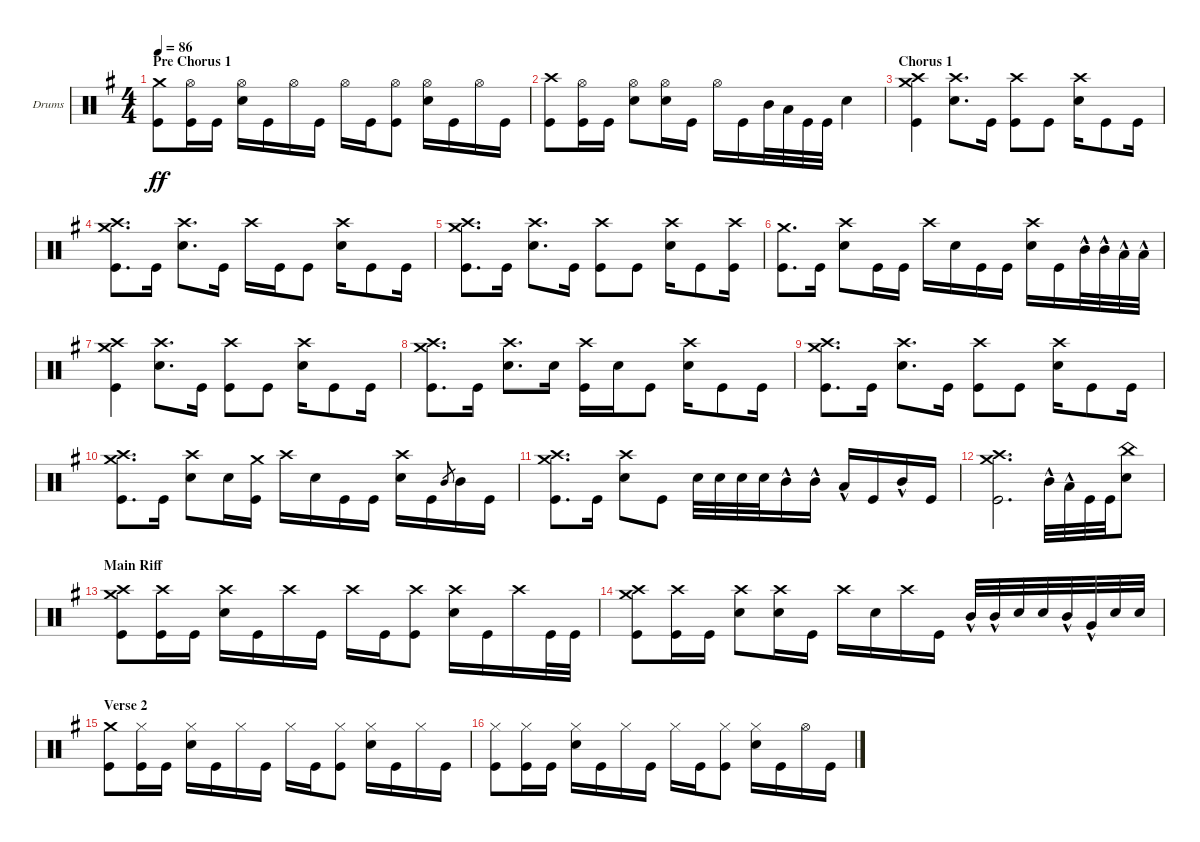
\defaultSystemsLayout 4
\bracketExtendMode groupsimilarinstruments
\firstSystemTrackNameOrientation horizontal
\otherSystemsTrackNameOrientation horizontal
\track ("Drumkit" "Drums") {instrument percussion}
\staff {score}
\articulation defaults
\ts (4 4)
\section ("" "Pre Chorus 1")
\tempo 86
\clef neutral
\ks eminor
("Kick (hit)" "Crash medium (hit)").8{dy ff} ("Kick (hit)" "Hi-Hat (open)").16 "Kick (hit)".16 ("Snare (hit) 2" "Hi-Hat (open)").16 "Kick (hit)".16 "Hi-Hat (open)".16 "Kick (hit)".16 "Hi-Hat (open)".16 "Kick (hit)".16 ("Kick (hit)" "Hi-Hat (open)").8 ("Snare (hit) 2" "Hi-Hat (open)").16 "Kick (hit)".16 "Hi-Hat (open)".16 "Kick (hit)".16 |
("Kick (hit)" "Crash high (hit)").8 ("Kick (hit)" "Hi-Hat (open)").16 "Kick (hit)".16 ("Snare (hit) 2" "Hi-Hat (open)").8 ("Hi-Hat (open)" "Snare (hit) 2").16 "Kick (hit)".16 "Hi-Hat (open)".16 "Kick (hit)".16 "Mid Tom (hit)".32 "Low Tom (hit)".32 "Kick (hit)".32 "Kick (hit)".32 "Snare (hit) 2".4 |
\section ("" "Chorus 1")
("Crash high (hit)" "Crash medium (hit)" "Kick (hit)").4 ("Crash high (hit)" "Snare (hit) 2").8{d} "Kick (hit)".16 ("Kick (hit)" "Crash high (hit)").8 "Kick (hit)".8 ("Snare (hit) 2" "Crash high (hit)").16 "Kick (hit)".8 "Kick (hit)".16 |
("Crash high (hit)" "Crash medium (hit)" "Kick (hit)").8{d} "Kick (hit)".16 ("Crash high (hit)" "Snare (hit) 2").8{d} "Kick (hit)".16 "Crash high (hit)".16 "Kick (hit)".16 "Kick (hit)".8 ("Snare (hit) 2" "Crash high (hit)").16 "Kick (hit)".8 "Kick (hit)".16 |
("Crash high (hit)" "Crash medium (hit)" "Kick (hit)").8{d} "Kick (hit)".16 ("Crash high (hit)" "Snare (hit) 2").8{d} "Kick (hit)".16 ("Kick (hit)" "Crash high (hit)").8 "Kick (hit)".8 ("Snare (hit) 2" "Crash high (hit)").16 "Kick (hit)".8 ("Kick (hit)" "Crash high (hit)").16 |
("Crash medium (hit)" "Kick (hit)").8{d} "Kick (hit)".16 ("Crash high (hit)" "Snare (hit) 2").8 "Kick (hit)".16 "Kick (hit)".16 "Crash high (hit)".16 "Snare (hit) 2".16 "Kick (hit)".16 "Kick (hit)".16 ("Snare (hit) 2" "Crash high (hit)").16 "Kick (hit)".16 "Mid Tom (hit)"{hac}.32 "Mid Tom (hit)"{hac}.32 "Low Tom (hit)"{hac}.32 "Low Tom (hit)"{hac}.32 |
("Crash high (hit)" "Crash medium (hit)" "Kick (hit)").4 ("Crash high (hit)" "Snare (hit) 2").8{d} "Kick (hit)".16 ("Kick (hit)" "Crash high (hit)").8 "Kick (hit)".8 ("Snare (hit) 2" "Crash high (hit)").16 "Kick (hit)".8 "Kick (hit)".16 |
("Crash high (hit)" "Crash medium (hit)" "Kick (hit)").8{d} "Kick (hit)".16 ("Crash high (hit)" "Snare (hit) 2").8{d} "Snare (hit) 2".16 ("Crash high (hit)" "Kick (hit)").16 "Snare (hit) 2".16 "Kick (hit)".8 ("Snare (hit) 2" "Crash high (hit)").16 "Kick (hit)".8 "Kick (hit)".16 |
("Crash high (hit)" "Crash medium (hit)" "Kick (hit)").8{d} "Kick (hit)".16 ("Crash high (hit)" "Snare (hit) 2").8{d} "Kick (hit)".16 ("Kick (hit)" "Crash high (hit)").8 "Kick (hit)".8 ("Snare (hit) 2" "Crash high (hit)").16 "Kick (hit)".8 "Kick (hit)".16 |
("Crash high (hit)" "Crash medium (hit)" "Kick (hit)").8{d} "Kick (hit)".16 ("Crash high (hit)" "Snare (hit) 2").8 "Snare (hit) 2".16 ("Kick (hit)" "Crash medium (hit)").16 "Crash high (hit)".16 "Snare (hit) 2".16 "Kick (hit)".16 "Kick (hit)".16 ("Snare (hit) 2" "Crash high (hit)").16 "Kick (hit)".16 "Mid Tom (hit)".8{gr} "Mid Tom (hit)".16 "Kick (hit)".16 |
("Crash high (hit)" "Crash medium (hit)" "Kick (hit)").8{d} "Kick (hit)".16 ("Crash high (hit)" "Snare (hit) 2").8 "Kick (hit)".8 "Snare (hit) 2".32 "Snare (hit) 2".32 "Snare (hit) 2".32 "Snare (hit) 2".32 "Mid Tom (hit)"{hac}.16 "Mid Tom (hit)"{hac}.16 "Low Tom (hit)"{hac}.16 "Kick (hit)".16 "Mid Tom (hit)"{hac}.16 "Kick (hit)".16 |
("Kick (hit)" "Crash high (hit)" "Crash medium (hit)").2{d} "Mid Tom (hit)"{hac}.32 "Low Tom (hit)"{hac}.32 "Kick (hit)".32 "Kick (hit)".32 ("Snare (hit) 2" "China (hit)").8 |
\section ("" "Main Riff")
("Crash high (hit)" "Kick (hit)" "Crash medium (hit)").8 ("Kick (hit)" "Crash high (hit)").16 "Kick (hit)".16 ("Snare (hit) 2" "Crash high (hit)").16 "Kick (hit)".16 "Crash high (hit)".16 "Kick (hit)".16 "Crash high (hit)".16 "Kick (hit)".16 ("Kick (hit)" "Crash high (hit)").8 ("Snare (hit) 2" "Crash high (hit)").16 "Kick (hit)".16 "Crash high (hit)".16 "Kick (hit)".32 "Kick (hit)".32 |
("Crash high (hit)" "Kick (hit)" "Crash medium (hit)").8 ("Kick (hit)" "Crash high (hit)").16 "Kick (hit)".16 ("Snare (hit) 2" "Crash high (hit)").8 ("Crash high (hit)" "Snare (hit) 2").16 "Kick (hit)".16 "Crash high (hit)".16 "Snare (hit) 2".16 "Crash high (hit)".16 "Kick (hit)".16 "Mid Tom (hit)"{hac}.32 "Mid Tom (hit)"{hac}.32 "Snare (hit) 2".32 "Snare (hit) 2".32 "Mid Tom (hit)"{hac}.32 "Very Low Tom (hit)"{hac}.32 "Snare (hit) 2".32 "Snare (hit) 2".32 |
\section ("" "Verse 2")
("Kick (hit)" "Crash medium (hit)").8 ("Kick (hit)" "Hi-Hat (closed)").16 "Kick (hit)".16 ("Snare (hit) 2" "Hi-Hat (closed)").16 "Kick (hit)".16 "Hi-Hat (closed)".16 "Kick (hit)".16 "Hi-Hat (closed)".16 "Kick (hit)".16 ("Kick (hit)" "Hi-Hat (closed)").8 ("Snare (hit) 2" "Hi-Hat (closed)").16 "Kick (hit)".16 "Hi-Hat (closed)".16 "Kick (hit)".16 |
("Kick (hit)" "Hi-Hat (closed)").8 ("Kick (hit)" "Hi-Hat (closed)").16 "Kick (hit)".16 ("Snare (hit) 2" "Hi-Hat (closed)").16 "Kick (hit)".16 "Hi-Hat (closed)".16 "Kick (hit)".16 "Hi-Hat (closed)".16 "Kick (hit)".16 ("Kick (hit)" "Hi-Hat (closed)").8 ("Snare (hit) 2" "Hi-Hat (closed)").16 "Kick (hit)".16 "Hi-Hat (open)".16 "Kick (hit)".16
